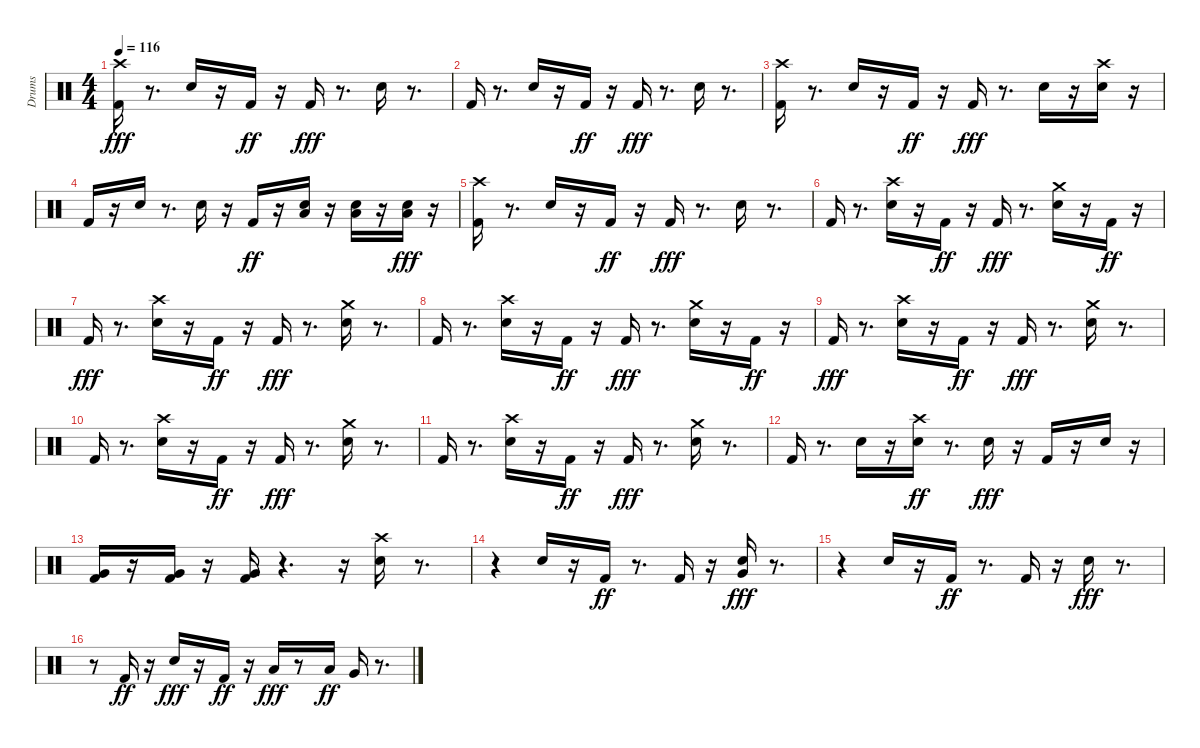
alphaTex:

\track ("Drums" "Drums") {instrument percussion}
\staff {score}
\articulation defaults
\ts (4 4)
\tempo 116
\clef neutral
\ks c
("Crash high (hit)" "Kick (hit) 2").16{dy fff} r.8{d} "Snare (hit) 2".16 r.16 "Kick (hit) 2".16{dy ff} r.16 "Kick (hit) 2".16{dy fff} r.8{d} "Snare (hit) 2".16 r.8{d} |
"Kick (hit) 2".16 r.8{d} "Snare (hit) 2".16 r.16 "Kick (hit) 2".16{dy ff} r.16 "Kick (hit) 2".16{dy fff} r.8{d} "Snare (hit) 2".16 r.8{d} |
("Crash high (hit)" "Kick (hit) 2").16 r.8{d} "Snare (hit) 2".16 r.16 "Kick (hit) 2".16{dy ff} r.16 "Kick (hit) 2".16{dy fff} r.8{d} "Snare (hit) 2".16 r.16 ("Crash high (hit)" "Snare (hit) 2").16 r.16 |
"Kick (hit) 2".16 r.16 "Snare (hit) 2".16 r.8{d} "Snare (hit) 2".16 r.16 "Kick (hit) 2".16{dy ff} r.16 ("Low Tom (hit)" "Snare (hit) 2").16 r.16 ("Low Tom (hit)" "Snare (hit) 2").16 r.16 ("Low Tom (hit)" "Snare (hit) 2").16{dy fff} r.16 |
("Crash high (hit)" "Kick (hit) 2").16 r.8{d} "Snare (hit) 2".16 r.16 "Kick (hit) 2".16{dy ff} r.16 "Kick (hit) 2".16{dy fff} r.8{d} "Snare (hit) 2".16 r.8{d} |
"Kick (hit) 2".16 r.8{d} ("Crash high (hit)" "Snare (hit) 2").16 r.16 "Kick (hit) 2".16{dy ff} r.16 "Kick (hit) 2".16{dy fff} r.8{d} ("Crash medium (hit)" "Snare (hit) 2").16 r.16 "Kick (hit) 2".16{dy ff} r.16 |
"Kick (hit) 2".16{dy fff} r.8{d} ("Crash high (hit)" "Snare (hit) 2").16 r.16 "Kick (hit) 2".16{dy ff} r.16 "Kick (hit) 2".16{dy fff} r.8{d} ("Crash medium (hit)" "Snare (hit) 2").16 r.8{d} |
"Kick (hit) 2".16 r.8{d} ("Crash high (hit)" "Snare (hit) 2").16 r.16 "Kick (hit) 2".16{dy ff} r.16 "Kick (hit) 2".16{dy fff} r.8{d} ("Crash medium (hit)" "Snare (hit) 2").16 r.16 "Kick (hit) 2".16{dy ff} r.16 |
"Kick (hit) 2".16{dy fff} r.8{d} ("Crash high (hit)" "Snare (hit) 2").16 r.16 "Kick (hit) 2".16{dy ff} r.16 "Kick (hit) 2".16{dy fff} r.8{d} ("Crash medium (hit)" "Snare (hit) 2").16 r.8{d} |
"Kick (hit) 2".16 r.8{d} ("Crash high (hit)" "Snare (hit) 2").16 r.16 "Kick (hit) 2".16{dy ff} r.16 "Kick (hit) 2".16{dy fff} r.8{d} ("Crash medium (hit)" "Snare (hit) 2").16 r.8{d} |
"Kick (hit) 2".16 r.8{d} ("Crash high (hit)" "Snare (hit) 2").16 r.16 "Kick (hit) 2".16{dy ff} r.16 "Kick (hit) 2".16{dy fff} r.8{d} ("Crash medium (hit)" "Snare (hit) 2").16 r.8{d} |
"Kick (hit) 2".16 r.8{d} "Snare (hit) 2".16 r.16 ("Crash high (hit)" "Snare (hit) 2").16{dy ff} r.8{d} "Snare (hit) 2".16{dy fff} r.16 "Kick (hit) 2".16 r.16 "Snare (hit) 2".16 r.16 |
("Very Low Tom (hit)" "Kick (hit) 2").16 r.16 ("Very Low Tom (hit)" "Kick (hit) 2").16 r.16 ("Very Low Tom (hit)" "Kick (hit) 2").16 r.4{d} r.16 ("Snare (hit) 2" "Crash high (hit)").16 r.8{d} |
r.4 "Snare (hit) 2".16 r.16 "Kick (hit) 2".16{dy ff} r.8{d} "Kick (hit) 2".16 r.16 ("Very Low Tom (hit)" "Snare (hit) 2").16{dy fff} r.8{d} |
r.4 "Snare (hit) 2".16 r.16 "Kick (hit) 2".16{dy ff} r.8{d} "Kick (hit) 2".16 r.16 "Snare (hit) 2".16{dy fff} r.8{d} |
r.8 "Kick (hit) 2".16{dy ff} r.16 "Snare (hit) 2".16{dy fff} r.16 "Kick (hit) 2".16{dy ff} r.16 "Low Tom (hit)".16{dy fff} r.8 "Low Tom (hit)".16{dy ff} "Very Low Tom (hit)".16 r.8{d}
